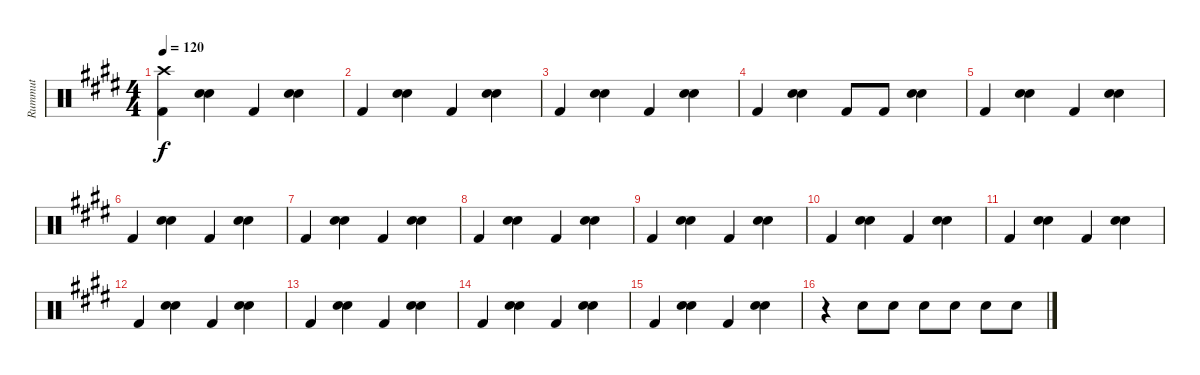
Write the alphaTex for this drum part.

\track ("Rummut" "Rummut") {instrument percussion}
\staff {score}
\articulation defaults
\ts (4 4)
\tempo 120
\clef neutral
\ks e
("Crash high (hit)" "Kick (hit) 2").4{dy f} ("Electric Snare (hit)" "Hand Clap (hit)").4{bd 120} "Kick (hit) 2".4 ("Electric Snare (hit)" "Hand Clap (hit)").4{bd 120} |
"Kick (hit) 2".4 ("Electric Snare (hit)" "Hand Clap (hit)").4{bd 120} "Kick (hit) 2".4 ("Electric Snare (hit)" "Hand Clap (hit)").4{bd 120} |
"Kick (hit) 2".4 ("Electric Snare (hit)" "Hand Clap (hit)").4{bd 120} "Kick (hit) 2".4 ("Electric Snare (hit)" "Hand Clap (hit)").4{bd 120} |
"Kick (hit) 2".4 ("Electric Snare (hit)" "Hand Clap (hit)").4{bd 120} "Kick (hit) 2".8 "Kick (hit) 2".8 ("Electric Snare (hit)" "Hand Clap (hit)").4{bd 120} |
"Kick (hit) 2".4 ("Electric Snare (hit)" "Hand Clap (hit)").4{bd 120} "Kick (hit) 2".4 ("Electric Snare (hit)" "Hand Clap (hit)").4{bd 120} |
"Kick (hit) 2".4 ("Electric Snare (hit)" "Hand Clap (hit)").4{bd 120} "Kick (hit) 2".4 ("Electric Snare (hit)" "Hand Clap (hit)").4{bd 120} |
"Kick (hit) 2".4 ("Electric Snare (hit)" "Hand Clap (hit)").4{bd 120} "Kick (hit) 2".4 ("Electric Snare (hit)" "Hand Clap (hit)").4{bd 120} |
"Kick (hit) 2".4 ("Electric Snare (hit)" "Hand Clap (hit)").4{bd 120} "Kick (hit) 2".4 ("Electric Snare (hit)" "Hand Clap (hit)").4{bd 120} |
"Kick (hit) 2".4 ("Electric Snare (hit)" "Hand Clap (hit)").4{bd 120} "Kick (hit) 2".4 ("Electric Snare (hit)" "Hand Clap (hit)").4{bd 120} |
"Kick (hit) 2".4 ("Electric Snare (hit)" "Hand Clap (hit)").4{bd 120} "Kick (hit) 2".4 ("Electric Snare (hit)" "Hand Clap (hit)").4{bd 120} |
"Kick (hit) 2".4 ("Electric Snare (hit)" "Hand Clap (hit)").4{bd 120} "Kick (hit) 2".4 ("Electric Snare (hit)" "Hand Clap (hit)").4{bd 120} |
"Kick (hit) 2".4 ("Electric Snare (hit)" "Hand Clap (hit)").4{bd 120} "Kick (hit) 2".4 ("Electric Snare (hit)" "Hand Clap (hit)").4{bd 120} |
"Kick (hit) 2".4 ("Electric Snare (hit)" "Hand Clap (hit)").4{bd 120} "Kick (hit) 2".4 ("Electric Snare (hit)" "Hand Clap (hit)").4{bd 120} |
"Kick (hit) 2".4 ("Electric Snare (hit)" "Hand Clap (hit)").4{bd 120} "Kick (hit) 2".4 ("Electric Snare (hit)" "Hand Clap (hit)").4{bd 120} |
"Kick (hit) 2".4 ("Electric Snare (hit)" "Hand Clap (hit)").4{bd 120} "Kick (hit) 2".4 ("Electric Snare (hit)" "Hand Clap (hit)").4{bd 120} |
r.4{volume 0} "Electric Snare (hit)".8{volume 16} "Electric Snare (hit)".8 "Electric Snare (hit)".8 "Electric Snare (hit)".8 "Electric Snare (hit)".8 "Electric Snare (hit)".8
